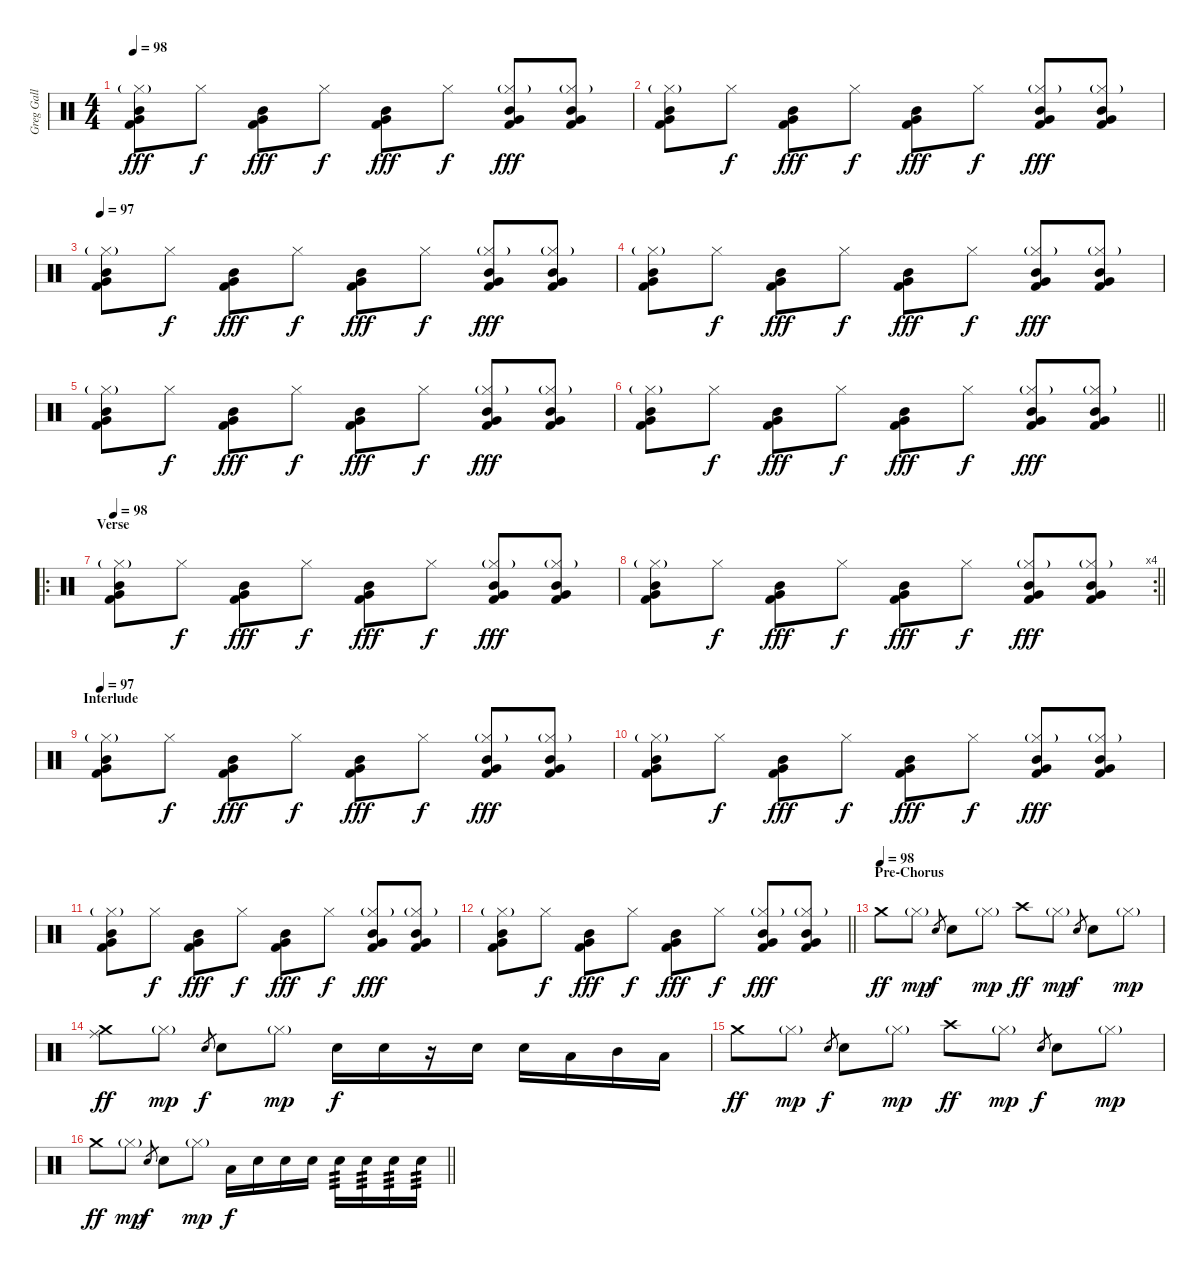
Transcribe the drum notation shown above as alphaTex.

\track ("Greg Gall" "Greg Gall") {instrument percussion}
\staff {score}
\articulation defaults
\ts (4 4)
\tempo 98
\clef neutral
\ks c
("Mid Tom (hit)" "Hi-Hat (closed)"{g} "Very Low Tom (hit)" "Kick (hit) 2").8{dy fff} "Hi-Hat (closed)".8{dy f} ("Mid Tom (hit)" "Very Low Tom (hit)" "Kick (hit) 2").8{dy fff} "Hi-Hat (closed)".8{dy f} ("Mid Tom (hit)" "Very Low Tom (hit)" "Kick (hit) 2").8{dy fff} "Hi-Hat (closed)".8{dy f} ("Mid Tom (hit)" "Hi-Hat (closed)"{g} "Very Low Tom (hit)" "Kick (hit) 2").8{dy fff} ("Mid Tom (hit)" "Hi-Hat (closed)"{g} "Very Low Tom (hit)" "Kick (hit) 2").8 |
("Mid Tom (hit)" "Hi-Hat (closed)"{g} "Very Low Tom (hit)" "Kick (hit) 2").8 "Hi-Hat (closed)".8{dy f} ("Mid Tom (hit)" "Very Low Tom (hit)" "Kick (hit) 2").8{dy fff} "Hi-Hat (closed)".8{dy f} ("Mid Tom (hit)" "Very Low Tom (hit)" "Kick (hit) 2").8{dy fff} "Hi-Hat (closed)".8{dy f} ("Mid Tom (hit)" "Hi-Hat (closed)"{g} "Very Low Tom (hit)" "Kick (hit) 2").8{dy fff} ("Mid Tom (hit)" "Hi-Hat (closed)"{g} "Very Low Tom (hit)" "Kick (hit) 2").8 |
\tempo 97
("Mid Tom (hit)" "Hi-Hat (closed)"{g} "Very Low Tom (hit)" "Kick (hit) 2").8 "Hi-Hat (closed)".8{dy f} ("Mid Tom (hit)" "Very Low Tom (hit)" "Kick (hit) 2").8{dy fff} "Hi-Hat (closed)".8{dy f} ("Mid Tom (hit)" "Very Low Tom (hit)" "Kick (hit) 2").8{dy fff} "Hi-Hat (closed)".8{dy f} ("Mid Tom (hit)" "Hi-Hat (closed)"{g} "Very Low Tom (hit)" "Kick (hit) 2").8{dy fff} ("Mid Tom (hit)" "Hi-Hat (closed)"{g} "Very Low Tom (hit)" "Kick (hit) 2").8 |
("Mid Tom (hit)" "Hi-Hat (closed)"{g} "Very Low Tom (hit)" "Kick (hit) 2").8 "Hi-Hat (closed)".8{dy f} ("Mid Tom (hit)" "Very Low Tom (hit)" "Kick (hit) 2").8{dy fff} "Hi-Hat (closed)".8{dy f} ("Mid Tom (hit)" "Very Low Tom (hit)" "Kick (hit) 2").8{dy fff} "Hi-Hat (closed)".8{dy f} ("Mid Tom (hit)" "Hi-Hat (closed)"{g} "Very Low Tom (hit)" "Kick (hit) 2").8{dy fff} ("Mid Tom (hit)" "Hi-Hat (closed)"{g} "Very Low Tom (hit)" "Kick (hit) 2").8 |
("Mid Tom (hit)" "Hi-Hat (closed)"{g} "Very Low Tom (hit)" "Kick (hit) 2").8 "Hi-Hat (closed)".8{dy f} ("Mid Tom (hit)" "Very Low Tom (hit)" "Kick (hit) 2").8{dy fff} "Hi-Hat (closed)".8{dy f} ("Mid Tom (hit)" "Very Low Tom (hit)" "Kick (hit) 2").8{dy fff} "Hi-Hat (closed)".8{dy f} ("Mid Tom (hit)" "Hi-Hat (closed)"{g} "Very Low Tom (hit)" "Kick (hit) 2").8{dy fff} ("Mid Tom (hit)" "Hi-Hat (closed)"{g} "Very Low Tom (hit)" "Kick (hit) 2").8 |
\barLineRight lightlight
("Mid Tom (hit)" "Hi-Hat (closed)"{g} "Very Low Tom (hit)" "Kick (hit) 2").8 "Hi-Hat (closed)".8{dy f} ("Mid Tom (hit)" "Very Low Tom (hit)" "Kick (hit) 2").8{dy fff} "Hi-Hat (closed)".8{dy f} ("Mid Tom (hit)" "Very Low Tom (hit)" "Kick (hit) 2").8{dy fff} "Hi-Hat (closed)".8{dy f} ("Mid Tom (hit)" "Hi-Hat (closed)"{g} "Very Low Tom (hit)" "Kick (hit) 2").8{dy fff} ("Mid Tom (hit)" "Hi-Hat (closed)"{g} "Very Low Tom (hit)" "Kick (hit) 2").8 |
\ro
\section ("" "Verse")
\tempo 98
("Mid Tom (hit)" "Hi-Hat (closed)"{g} "Very Low Tom (hit)" "Kick (hit) 2").8 "Hi-Hat (closed)".8{dy f} ("Mid Tom (hit)" "Very Low Tom (hit)" "Kick (hit) 2").8{dy fff} "Hi-Hat (closed)".8{dy f} ("Mid Tom (hit)" "Very Low Tom (hit)" "Kick (hit) 2").8{dy fff} "Hi-Hat (closed)".8{dy f} ("Mid Tom (hit)" "Hi-Hat (closed)"{g} "Very Low Tom (hit)" "Kick (hit) 2").8{dy fff} ("Mid Tom (hit)" "Hi-Hat (closed)"{g} "Very Low Tom (hit)" "Kick (hit) 2").8 |
\rc 4
\barLineRight lightlight
("Mid Tom (hit)" "Hi-Hat (closed)"{g} "Very Low Tom (hit)" "Kick (hit) 2").8 "Hi-Hat (closed)".8{dy f} ("Mid Tom (hit)" "Very Low Tom (hit)" "Kick (hit) 2").8{dy fff} "Hi-Hat (closed)".8{dy f} ("Mid Tom (hit)" "Very Low Tom (hit)" "Kick (hit) 2").8{dy fff} "Hi-Hat (closed)".8{dy f} ("Mid Tom (hit)" "Hi-Hat (closed)"{g} "Very Low Tom (hit)" "Kick (hit) 2").8{dy fff} ("Mid Tom (hit)" "Hi-Hat (closed)"{g} "Very Low Tom (hit)" "Kick (hit) 2").8 |
\section ("" "Interlude")
\tempo 97
("Mid Tom (hit)" "Hi-Hat (closed)"{g} "Very Low Tom (hit)" "Kick (hit) 2").8 "Hi-Hat (closed)".8{dy f} ("Mid Tom (hit)" "Very Low Tom (hit)" "Kick (hit) 2").8{dy fff} "Hi-Hat (closed)".8{dy f} ("Mid Tom (hit)" "Very Low Tom (hit)" "Kick (hit) 2").8{dy fff} "Hi-Hat (closed)".8{dy f} ("Mid Tom (hit)" "Hi-Hat (closed)"{g} "Very Low Tom (hit)" "Kick (hit) 2").8{dy fff} ("Mid Tom (hit)" "Hi-Hat (closed)"{g} "Very Low Tom (hit)" "Kick (hit) 2").8 |
("Mid Tom (hit)" "Hi-Hat (closed)"{g} "Very Low Tom (hit)" "Kick (hit) 2").8 "Hi-Hat (closed)".8{dy f} ("Mid Tom (hit)" "Very Low Tom (hit)" "Kick (hit) 2").8{dy fff} "Hi-Hat (closed)".8{dy f} ("Mid Tom (hit)" "Very Low Tom (hit)" "Kick (hit) 2").8{dy fff} "Hi-Hat (closed)".8{dy f} ("Mid Tom (hit)" "Hi-Hat (closed)"{g} "Very Low Tom (hit)" "Kick (hit) 2").8{dy fff} ("Mid Tom (hit)" "Hi-Hat (closed)"{g} "Very Low Tom (hit)" "Kick (hit) 2").8 |
("Mid Tom (hit)" "Hi-Hat (closed)"{g} "Very Low Tom (hit)" "Kick (hit) 2").8 "Hi-Hat (closed)".8{dy f} ("Mid Tom (hit)" "Very Low Tom (hit)" "Kick (hit) 2").8{dy fff} "Hi-Hat (closed)".8{dy f} ("Mid Tom (hit)" "Very Low Tom (hit)" "Kick (hit) 2").8{dy fff} "Hi-Hat (closed)".8{dy f} ("Mid Tom (hit)" "Hi-Hat (closed)"{g} "Very Low Tom (hit)" "Kick (hit) 2").8{dy fff} ("Mid Tom (hit)" "Hi-Hat (closed)"{g} "Very Low Tom (hit)" "Kick (hit) 2").8 |
\barLineRight lightlight
("Mid Tom (hit)" "Hi-Hat (closed)"{g} "Very Low Tom (hit)" "Kick (hit) 2").8 "Hi-Hat (closed)".8{dy f} ("Mid Tom (hit)" "Very Low Tom (hit)" "Kick (hit) 2").8{dy fff} "Hi-Hat (closed)".8{dy f} ("Mid Tom (hit)" "Very Low Tom (hit)" "Kick (hit) 2").8{dy fff} "Hi-Hat (closed)".8{dy f} ("Mid Tom (hit)" "Hi-Hat (closed)"{g} "Very Low Tom (hit)" "Kick (hit) 2").8{dy fff} ("Mid Tom (hit)" "Hi-Hat (closed)"{g} "Very Low Tom (hit)" "Kick (hit) 2").8 |
\section ("" "Pre-Chorus")
\tempo (98)
"Crash medium (hit)".8{dy ff} "Hi-Hat (closed)"{g}.8{dy mp} "Electric Snare (hit)".8{gr dy f} "Electric Snare (hit)".8 "Hi-Hat (closed)"{g}.8{dy mp} "Crash high (hit)".8{dy ff} "Hi-Hat (closed)"{g}.8{dy mp} "Electric Snare (hit)".8{gr dy f} "Electric Snare (hit)".8 "Hi-Hat (closed)"{g}.8{dy mp} |
("Ride (middle)" "Crash medium (hit)").8{dy ff} "Hi-Hat (closed)"{g}.8{dy mp} "Electric Snare (hit)".8{gr dy f} "Electric Snare (hit)".8 "Hi-Hat (closed)"{g}.8{dy mp} "Electric Snare (hit)".16{dy f} "Electric Snare (hit)".16 r.16 "Electric Snare (hit)".16 "Electric Snare (hit)".16 "Low Tom (hit)".16 "Mid Tom (hit)".16 "Low Tom (hit)".16 |
"Crash medium (hit)".8{dy ff} "Hi-Hat (closed)"{g}.8{dy mp} "Electric Snare (hit)".8{gr dy f} "Electric Snare (hit)".8 "Hi-Hat (closed)"{g}.8{dy mp} "Crash high (hit)".8{dy ff} "Hi-Hat (closed)"{g}.8{dy mp} "Electric Snare (hit)".8{gr dy f} "Electric Snare (hit)".8 "Hi-Hat (closed)"{g}.8{dy mp} |
\barLineRight lightlight "Crash medium (hit)".8{dy ff} "Hi-Hat (closed)"{g}.8{dy mp} "Electric Snare (hit)".8{gr dy f} "Electric Snare (hit)".8 "Hi-Hat (closed)"{g}.8{dy mp} "Low Tom (hit)".16{dy f} "Electric Snare (hit)".16 "Electric Snare (hit)".16 "Electric Snare (hit)".16 "Electric Snare (hit)".16{tp 3} "Electric Snare (hit)".16{tp 3} "Electric Snare (hit)".16{tp 3} "Electric Snare (hit)".16{tp 3}
